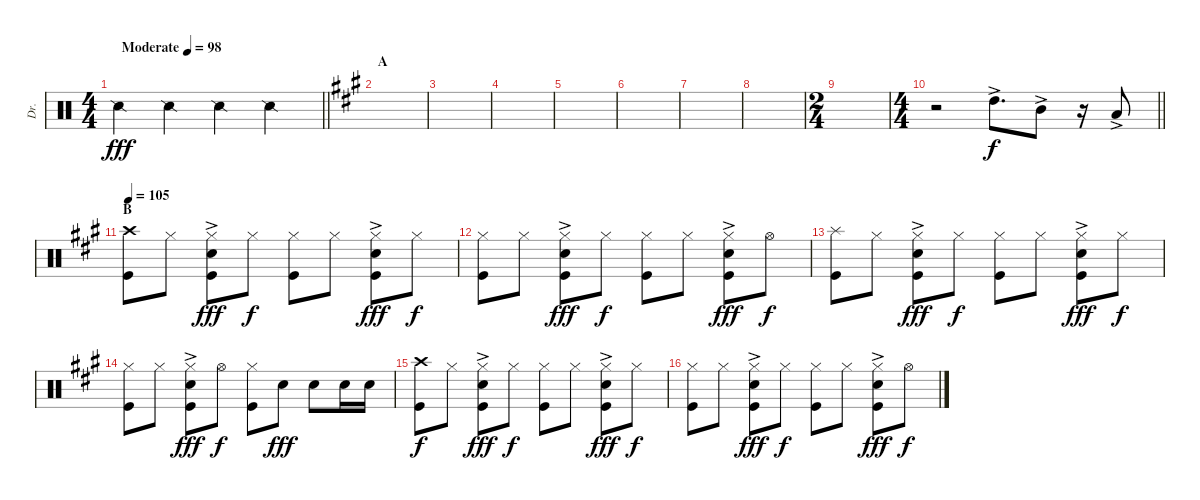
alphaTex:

\track ("Dr." "Dr.") {instrument percussion}
\staff {score}
\articulation defaults
\ts (4 4)
\tempo (98 "Moderate")
\clef neutral
\barLineRight lightlight
\ks c "Snare (side stick) 2".4{dy fff} "Snare (side stick) 2".4 "Snare (side stick) 2".4 "Snare (side stick) 2".4
|
\section ("" "A")
\ks a
|
|
|
|
|
|
|
\ts (2 4)
|
\ts (4 4)
\barLineRight lightlight
r.2 "High Tom (hit)"{ac}.8{d dy f} "Mid Tom (hit)"{ac}.8 r.16 "Low Tom (hit)"{ac}.8 |
\section ("" "B")
\tempo 105
("Crash high (hit)" "Kick (hit)").8 "Hi-Hat (closed)".8 ("Hi-Hat (closed)"{ac} "Snare (hit) 2"{ac} "Kick (hit)").8{dy fff} "Hi-Hat (closed)".8{dy f} ("Hi-Hat (closed)" "Kick (hit)").8 "Hi-Hat (closed)".8 ("Hi-Hat (closed)"{ac} "Snare (hit) 2"{ac} "Kick (hit)").8{dy fff} "Hi-Hat (closed)".8{dy f} |
("Hi-Hat (closed)" "Kick (hit)").8 "Hi-Hat (closed)".8 ("Hi-Hat (closed)"{ac} "Snare (hit) 2"{ac} "Kick (hit)").8{dy fff} "Hi-Hat (closed)".8{dy f} ("Hi-Hat (closed)" "Kick (hit)").8 "Hi-Hat (closed)".8 ("Hi-Hat (closed)"{ac} "Snare (hit) 2"{ac} "Kick (hit)").8{dy fff} "Hi-Hat (open)".8{dy f} |
("Splash (hit)" "Kick (hit)").8 "Hi-Hat (closed)".8 ("Hi-Hat (closed)"{ac} "Snare (hit) 2"{ac} "Kick (hit)").8{dy fff} "Hi-Hat (closed)".8{dy f} ("Hi-Hat (closed)" "Kick (hit)").8 "Hi-Hat (closed)".8 ("Hi-Hat (closed)"{ac} "Snare (hit) 2"{ac} "Kick (hit)").8{dy fff} "Hi-Hat (closed)".8{dy f} |
("Hi-Hat (closed)" "Kick (hit)").8 "Hi-Hat (closed)".8 ("Hi-Hat (closed)"{ac} "Snare (hit) 2"{ac} "Kick (hit)").8{dy fff} "Hi-Hat (open)".8{dy f} ("Hi-Hat (closed)" "Kick (hit)").8 "Snare (hit) 2".8{dy fff} "Snare (hit) 2".8 "Snare (hit) 2".16 "Snare (hit) 2".16 |
("Crash high (hit)" "Kick (hit)").8{dy f} "Hi-Hat (closed)".8 ("Hi-Hat (closed)"{ac} "Snare (hit) 2"{ac} "Kick (hit)").8{dy fff} "Hi-Hat (closed)".8{dy f} ("Hi-Hat (closed)" "Kick (hit)").8 "Hi-Hat (closed)".8 ("Hi-Hat (closed)"{ac} "Snare (hit) 2"{ac} "Kick (hit)").8{dy fff} "Hi-Hat (closed)".8{dy f} |
("Hi-Hat (closed)" "Kick (hit)").8 "Hi-Hat (closed)".8 ("Hi-Hat (closed)"{ac} "Snare (hit) 2"{ac} "Kick (hit)").8{dy fff} "Hi-Hat (closed)".8{dy f} ("Hi-Hat (closed)" "Kick (hit)").8 "Hi-Hat (closed)".8 ("Hi-Hat (closed)"{ac} "Snare (hit) 2"{ac} "Kick (hit)").8{dy fff} "Hi-Hat (open)".8{dy f}
